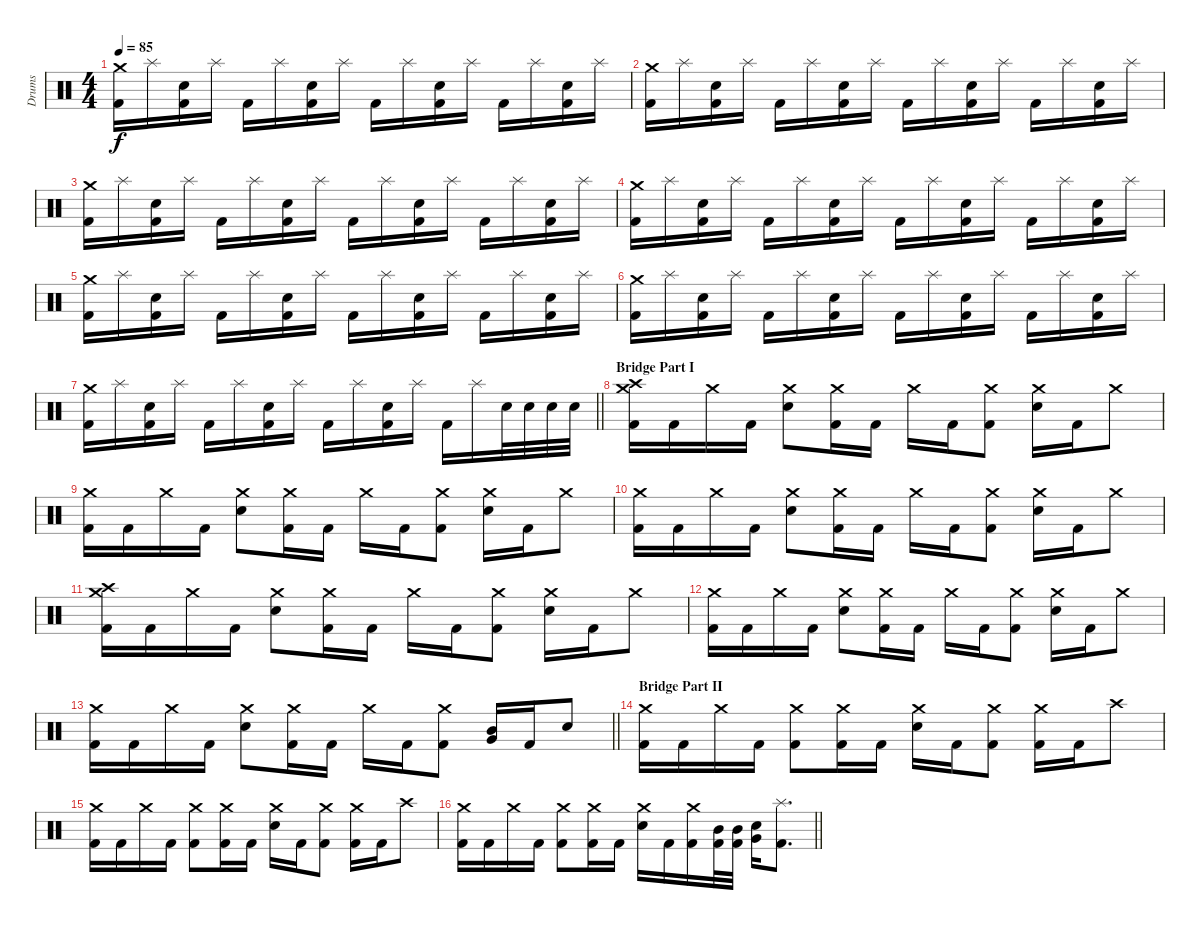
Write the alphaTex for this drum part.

\track ("Drums" "Drums") {instrument percussion}
\staff {score}
\articulation defaults
\ts (4 4)
\tempo 85
\clef neutral
\ks c
("Crash medium (hit)" "Kick (hit) 2").16{dy f} "Splash (hit)".16 ("Electric Snare (hit)" "Kick (hit) 2").16 "Splash (hit)".16 "Kick (hit) 2".16 "Splash (hit)".16 ("Electric Snare (hit)" "Kick (hit) 2").16 "Splash (hit)".16 "Kick (hit) 2".16 "Splash (hit)".16 ("Electric Snare (hit)" "Kick (hit) 2").16 "Splash (hit)".16 "Kick (hit) 2".16 "Splash (hit)".16 ("Electric Snare (hit)" "Kick (hit) 2").16 "Splash (hit)".16 |
("Crash medium (hit)" "Kick (hit) 2").16 "Splash (hit)".16 ("Electric Snare (hit)" "Kick (hit) 2").16 "Splash (hit)".16 "Kick (hit) 2".16 "Splash (hit)".16 ("Electric Snare (hit)" "Kick (hit) 2").16 "Splash (hit)".16 "Kick (hit) 2".16 "Splash (hit)".16 ("Electric Snare (hit)" "Kick (hit) 2").16 "Splash (hit)".16 "Kick (hit) 2".16 "Splash (hit)".16 ("Electric Snare (hit)" "Kick (hit) 2").16 "Splash (hit)".16 |
("Crash medium (hit)" "Kick (hit) 2").16 "Splash (hit)".16 ("Electric Snare (hit)" "Kick (hit) 2").16 "Splash (hit)".16 "Kick (hit) 2".16 "Splash (hit)".16 ("Electric Snare (hit)" "Kick (hit) 2").16 "Splash (hit)".16 "Kick (hit) 2".16 "Splash (hit)".16 ("Electric Snare (hit)" "Kick (hit) 2").16 "Splash (hit)".16 "Kick (hit) 2".16 "Splash (hit)".16 ("Electric Snare (hit)" "Kick (hit) 2").16 "Splash (hit)".16 |
("Crash medium (hit)" "Kick (hit) 2").16 "Splash (hit)".16 ("Electric Snare (hit)" "Kick (hit) 2").16 "Splash (hit)".16 "Kick (hit) 2".16 "Splash (hit)".16 ("Electric Snare (hit)" "Kick (hit) 2").16 "Splash (hit)".16 "Kick (hit) 2".16 "Splash (hit)".16 ("Electric Snare (hit)" "Kick (hit) 2").16 "Splash (hit)".16 "Kick (hit) 2".16 "Splash (hit)".16 ("Electric Snare (hit)" "Kick (hit) 2").16 "Splash (hit)".16 |
("Crash medium (hit)" "Kick (hit) 2").16 "Splash (hit)".16 ("Electric Snare (hit)" "Kick (hit) 2").16 "Splash (hit)".16 "Kick (hit) 2".16 "Splash (hit)".16 ("Electric Snare (hit)" "Kick (hit) 2").16 "Splash (hit)".16 "Kick (hit) 2".16 "Splash (hit)".16 ("Electric Snare (hit)" "Kick (hit) 2").16 "Splash (hit)".16 "Kick (hit) 2".16 "Splash (hit)".16 ("Electric Snare (hit)" "Kick (hit) 2").16 "Splash (hit)".16 |
("Crash medium (hit)" "Kick (hit) 2").16 "Splash (hit)".16 ("Electric Snare (hit)" "Kick (hit) 2").16 "Splash (hit)".16 "Kick (hit) 2".16 "Splash (hit)".16 ("Electric Snare (hit)" "Kick (hit) 2").16 "Splash (hit)".16 "Kick (hit) 2".16 "Splash (hit)".16 ("Electric Snare (hit)" "Kick (hit) 2").16 "Splash (hit)".16 "Kick (hit) 2".16 "Splash (hit)".16 ("Electric Snare (hit)" "Kick (hit) 2").16 "Splash (hit)".16 |
\barLineRight lightlight
("Crash medium (hit)" "Kick (hit) 2").16 "Splash (hit)".16 ("Electric Snare (hit)" "Kick (hit) 2").16 "Splash (hit)".16 "Kick (hit) 2".16 "Splash (hit)".16 ("Electric Snare (hit)" "Kick (hit) 2").16 "Splash (hit)".16 "Kick (hit) 2".16 "Splash (hit)".16 ("Electric Snare (hit)" "Kick (hit) 2").16 "Splash (hit)".16 "Kick (hit) 2".16 "Splash (hit)".16 "Electric Snare (hit)".32 "Electric Snare (hit)".32 "Electric Snare (hit)".32 "Electric Snare (hit)".32 |
\section ("" "Bridge Part I")
("Crash high (hit)" "Crash medium (hit)" "Kick (hit) 2").16 "Kick (hit) 2".16 "Crash medium (hit)".16 "Kick (hit) 2".16 ("Crash medium (hit)" "Electric Snare (hit)").8 ("Crash medium (hit)" "Kick (hit) 2").16 "Kick (hit) 2".16 "Crash medium (hit)".16 "Kick (hit) 2".16 ("Crash medium (hit)" "Kick (hit) 2").8 ("Crash medium (hit)" "Electric Snare (hit)").16 "Kick (hit) 2".16 "Crash medium (hit)".8 |
("Crash medium (hit)" "Kick (hit) 2").16 "Kick (hit) 2".16 "Crash medium (hit)".16 "Kick (hit) 2".16 ("Crash medium (hit)" "Electric Snare (hit)").8 ("Crash medium (hit)" "Kick (hit) 2").16 "Kick (hit) 2".16 "Crash medium (hit)".16 "Kick (hit) 2".16 ("Crash medium (hit)" "Kick (hit) 2").8 ("Crash medium (hit)" "Electric Snare (hit)").16 "Kick (hit) 2".16 "Crash medium (hit)".8 |
("Crash medium (hit)" "Kick (hit) 2").16 "Kick (hit) 2".16 "Crash medium (hit)".16 "Kick (hit) 2".16 ("Crash medium (hit)" "Electric Snare (hit)").8 ("Crash medium (hit)" "Kick (hit) 2").16 "Kick (hit) 2".16 "Crash medium (hit)".16 "Kick (hit) 2".16 ("Crash medium (hit)" "Kick (hit) 2").8 ("Crash medium (hit)" "Electric Snare (hit)").16 "Kick (hit) 2".16 "Crash medium (hit)".8 |
("Crash high (hit)" "Crash medium (hit)" "Kick (hit) 2").16 "Kick (hit) 2".16 "Crash medium (hit)".16 "Kick (hit) 2".16 ("Crash medium (hit)" "Electric Snare (hit)").8 ("Crash medium (hit)" "Kick (hit) 2").16 "Kick (hit) 2".16 "Crash medium (hit)".16 "Kick (hit) 2".16 ("Crash medium (hit)" "Kick (hit) 2").8 ("Crash medium (hit)" "Electric Snare (hit)").16 "Kick (hit) 2".16 "Crash medium (hit)".8 |
("Crash medium (hit)" "Kick (hit) 2").16 "Kick (hit) 2".16 "Crash medium (hit)".16 "Kick (hit) 2".16 ("Crash medium (hit)" "Electric Snare (hit)").8 ("Crash medium (hit)" "Kick (hit) 2").16 "Kick (hit) 2".16 "Crash medium (hit)".16 "Kick (hit) 2".16 ("Crash medium (hit)" "Kick (hit) 2").8 ("Crash medium (hit)" "Electric Snare (hit)").16 "Kick (hit) 2".16 "Crash medium (hit)".8 |
\barLineRight lightlight
("Crash medium (hit)" "Kick (hit) 2").16 "Kick (hit) 2".16 "Crash medium (hit)".16 "Kick (hit) 2".16 ("Crash medium (hit)" "Electric Snare (hit)").8 ("Crash medium (hit)" "Kick (hit) 2").16 "Kick (hit) 2".16 "Crash medium (hit)".16 "Kick (hit) 2".16 ("Crash medium (hit)" "Kick (hit) 2").8 ("Mid Tom (hit)" "Very Low Tom (hit)").16 "Kick (hit) 2".16 "Electric Snare (hit)".8 |
\section ("" "Bridge Part II")
("Crash medium (hit)" "Kick (hit) 2").16 "Kick (hit) 2".16 "Crash medium (hit)".16 "Kick (hit) 2".16 ("Crash medium (hit)" "Kick (hit) 2").8 ("Crash medium (hit)" "Kick (hit) 2").16 "Kick (hit) 2".16 ("Crash medium (hit)" "Electric Snare (hit)").16 "Kick (hit) 2".16 ("Crash medium (hit)" "Kick (hit) 2").8 ("Crash medium (hit)" "Kick (hit) 2").16 "Kick (hit) 2".16 "Crash high (hit)".8 |
("Crash medium (hit)" "Kick (hit) 2").16 "Kick (hit) 2".16 "Crash medium (hit)".16 "Kick (hit) 2".16 ("Crash medium (hit)" "Kick (hit) 2").8 ("Crash medium (hit)" "Kick (hit) 2").16 "Kick (hit) 2".16 ("Crash medium (hit)" "Electric Snare (hit)").16 "Kick (hit) 2".16 ("Crash medium (hit)" "Kick (hit) 2").8 ("Crash medium (hit)" "Kick (hit) 2").16 "Kick (hit) 2".16 "Crash high (hit)".8 |
\barLineRight lightlight
("Crash medium (hit)" "Kick (hit) 2").16 "Kick (hit) 2".16 "Crash medium (hit)".16 "Kick (hit) 2".16 ("Crash medium (hit)" "Kick (hit) 2").8 ("Crash medium (hit)" "Kick (hit) 2").16 "Kick (hit) 2".16 ("Crash medium (hit)" "Electric Snare (hit)").16 "Kick (hit) 2".16 ("Crash medium (hit)" "Kick (hit) 2").16 ("Mid Tom (hit)" "Kick (hit) 2").32 ("Mid Tom (hit)" "Kick (hit) 2").32 ("Very Low Tom (hit)" "Electric Snare (hit)").16 ("Splash (hit)" "Kick (hit) 2").8{d}
